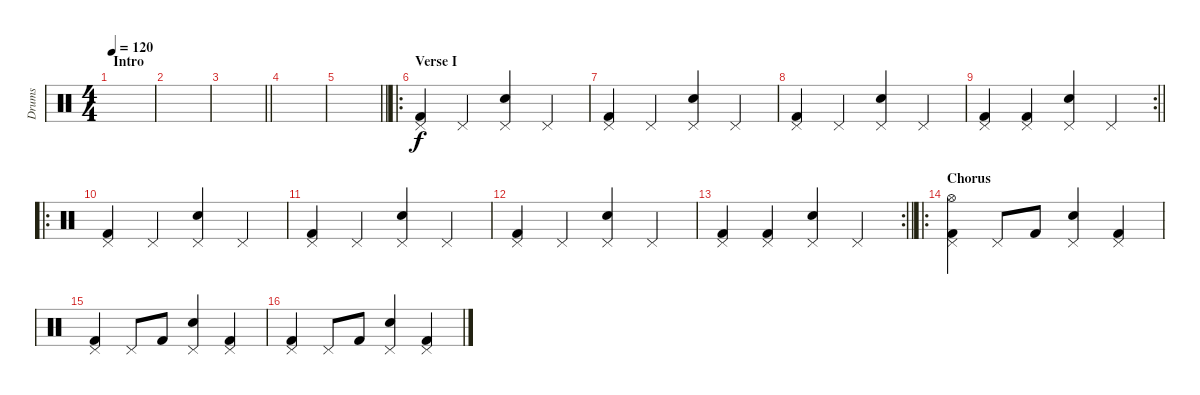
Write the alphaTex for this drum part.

\track ("Drums" "Drums") {instrument percussion}
\staff {score}
\articulation defaults
\ts (4 4)
\section ("" "Intro")
\tempo 120
\clef neutral
\ks c
|
|
\barLineRight lightlight
|
\section ("" "")
|
\barLineRight lightlight
|
\ro
\section ("" "Verse I")
("Pedal Hi-Hat (hit)" "Kick (hit) 2").4 "Pedal Hi-Hat (hit)".4 ("Pedal Hi-Hat (hit)" "Electric Snare (hit)").4 "Pedal Hi-Hat (hit)".4 |
("Pedal Hi-Hat (hit)" "Kick (hit) 2").4 "Pedal Hi-Hat (hit)".4 ("Pedal Hi-Hat (hit)" "Electric Snare (hit)").4 "Pedal Hi-Hat (hit)".4 |
("Pedal Hi-Hat (hit)" "Kick (hit) 2").4 "Pedal Hi-Hat (hit)".4 ("Pedal Hi-Hat (hit)" "Electric Snare (hit)").4 "Pedal Hi-Hat (hit)".4 |
\rc 2
\barLineRight lightlight
("Pedal Hi-Hat (hit)" "Kick (hit) 2").4 ("Pedal Hi-Hat (hit)" "Kick (hit) 2").4 ("Pedal Hi-Hat (hit)" "Electric Snare (hit)").4 "Pedal Hi-Hat (hit)".4 |
\ro
\section ("" "")
("Pedal Hi-Hat (hit)" "Kick (hit) 2").4 "Pedal Hi-Hat (hit)".4 ("Pedal Hi-Hat (hit)" "Electric Snare (hit)").4 "Pedal Hi-Hat (hit)".4 |
("Pedal Hi-Hat (hit)" "Kick (hit) 2").4 "Pedal Hi-Hat (hit)".4 ("Pedal Hi-Hat (hit)" "Electric Snare (hit)").4 "Pedal Hi-Hat (hit)".4 |
("Pedal Hi-Hat (hit)" "Kick (hit) 2").4 "Pedal Hi-Hat (hit)".4 ("Pedal Hi-Hat (hit)" "Electric Snare (hit)").4 "Pedal Hi-Hat (hit)".4 |
\rc 2
\barLineRight lightlight
("Pedal Hi-Hat (hit)" "Kick (hit) 2").4 ("Pedal Hi-Hat (hit)" "Kick (hit) 2").4 ("Pedal Hi-Hat (hit)" "Electric Snare (hit)").4 "Pedal Hi-Hat (hit)".4 |
\ro
\section ("" "Chorus")
("Hi-Hat (open)" "Pedal Hi-Hat (hit)" "Kick (hit) 2").4 "Pedal Hi-Hat (hit)".8 "Kick (hit) 2".8 ("Pedal Hi-Hat (hit)" "Electric Snare (hit)").4 ("Pedal Hi-Hat (hit)" "Kick (hit) 2").4 |
("Pedal Hi-Hat (hit)" "Kick (hit) 2").4 "Pedal Hi-Hat (hit)".8 "Kick (hit) 2".8 ("Pedal Hi-Hat (hit)" "Electric Snare (hit)").4 ("Pedal Hi-Hat (hit)" "Kick (hit) 2").4 |
("Pedal Hi-Hat (hit)" "Kick (hit) 2").4 "Pedal Hi-Hat (hit)".8 "Kick (hit) 2".8 ("Pedal Hi-Hat (hit)" "Electric Snare (hit)").4 ("Pedal Hi-Hat (hit)" "Kick (hit) 2").4
